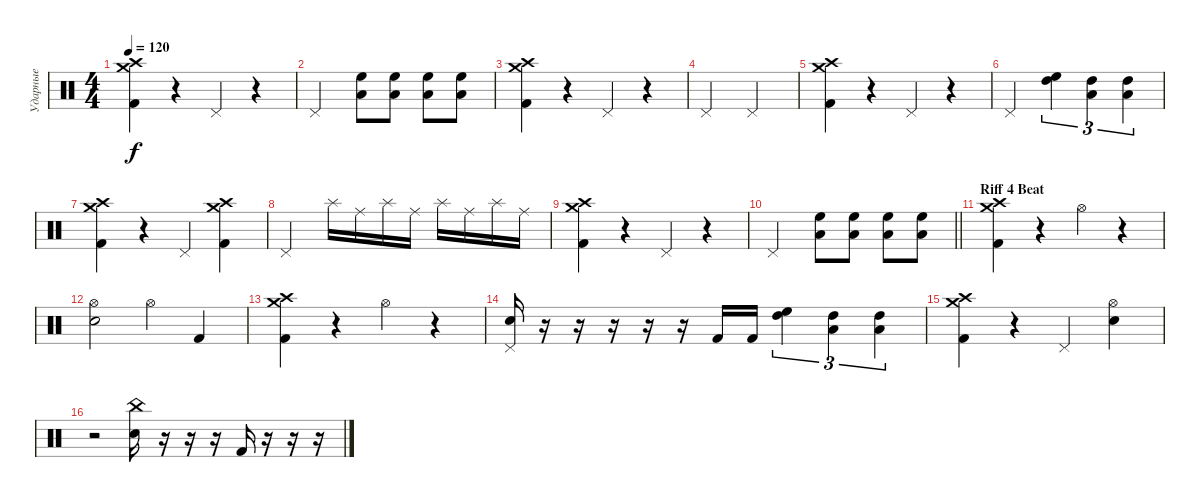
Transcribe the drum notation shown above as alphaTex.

\track ("Ударные" "Ударные") {instrument percussion}
\staff {score}
\articulation defaults
\ts (4 4)
\tempo 120
\clef neutral
\ks c
("Crash high (hit)" "Crash medium (hit)" "Kick (hit) 2").4{dy f} r.4 "Pedal Hi-Hat (hit)".4 r.4 |
"Pedal Hi-Hat (hit)".2 ("High Floor Tom (hit)" "Low Tom (hit)").8 ("High Floor Tom (hit)" "Low Tom (hit)").8 ("High Floor Tom (hit)" "Low Tom (hit)").8 ("High Floor Tom (hit)" "Low Tom (hit)").8 |
("Crash high (hit)" "Crash medium (hit)" "Kick (hit) 2").4 r.4 "Pedal Hi-Hat (hit)".4 r.4 |
"Pedal Hi-Hat (hit)".2 "Pedal Hi-Hat (hit)".2 |
("Crash high (hit)" "Crash medium (hit)" "Kick (hit) 2").4 r.4 "Pedal Hi-Hat (hit)".4 r.4 |
"Pedal Hi-Hat (hit)".2 ("High Floor Tom (hit)" "High Tom (hit)").4{tu (3 2)} ("Low Tom (hit)" "High Tom (hit)").4{tu (3 2)} ("Low Tom (hit)" "High Tom (hit)").4{tu (3 2)} |
("Crash high (hit)" "Crash medium (hit)" "Kick (hit) 2").4 r.4 "Pedal Hi-Hat (hit)".4 ("Crash high (hit)" "Crash medium (hit)" "Kick (hit) 2").4 |
"Pedal Hi-Hat (hit)".2 "Splash (hit)".16 "Ride (middle)".16 "Splash (hit)".16 "Ride (middle)".16 "Splash (hit)".16 "Ride (middle)".16 "Splash (hit)".16 "Ride (middle)".16 |
("Crash high (hit)" "Crash medium (hit)" "Kick (hit) 2").4 r.4 "Pedal Hi-Hat (hit)".4 r.4 |
\barLineRight lightlight "Pedal Hi-Hat (hit)".2
("High Floor Tom (hit)" "Low Tom (hit)").8 ("High Floor Tom (hit)" "Low Tom (hit)").8 ("High Floor Tom (hit)" "Low Tom (hit)").8 ("High Floor Tom (hit)" "Low Tom (hit)").8 |
\section ("" "Riff 4 Beat")
("Crash high (hit)" "Crash medium (hit)" "Kick (hit) 2").4 r.4 "Hi-Hat (open)".4 r.4 |
("Hi-Hat (open)" "Electric Snare (hit)").2 "Hi-Hat (open)".4 "Kick (hit) 2".4 |
("Crash high (hit)" "Crash medium (hit)" "Kick (hit) 2").4 r.4 "Hi-Hat (open)".4 r.4 |
("Pedal Hi-Hat (hit)" "Electric Snare (hit)").16 r.16 r.16 r.16 r.16 r.16 "Kick (hit) 2".16 "Kick (hit) 2".16 ("High Floor Tom (hit)" "High Tom (hit)").4{tu (3 2)} ("Low Tom (hit)" "High Tom (hit)").4{tu (3 2)} ("Low Tom (hit)" "High Tom (hit)").4{tu (3 2)} |
("Crash high (hit)" "Crash medium (hit)" "Kick (hit) 2").4 r.4 "Pedal Hi-Hat (hit)".4 ("Hi-Hat (open)" "Electric Snare (hit)").4 |
r.2 ("China (hit)" "Electric Snare (hit)").16 r.16 r.16 r.16 "Kick (hit) 2".16 r.16 r.16 r.16
